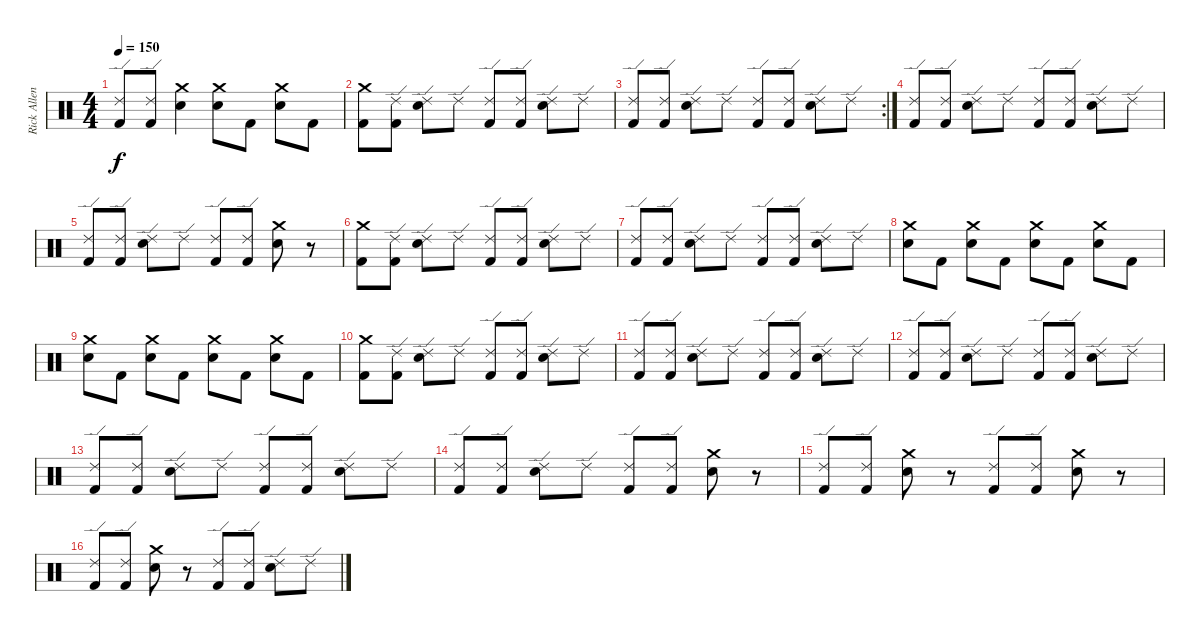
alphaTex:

\track ("Rick Allen" "Rick Allen") {instrument percussion}
\staff {score}
\articulation defaults
\ts (4 4)
\tempo 150
\clef neutral
\ks c
("Ride (edge) 2" "Kick (hit) 2").8{dy f} ("Ride (edge) 2" "Kick (hit) 2").8 ("Crash medium (hit)" "Snare (hit) 2").4 ("Crash medium (hit)" "Snare (hit) 2").8 "Kick (hit) 2".8 ("Crash medium (hit)" "Snare (hit) 2").8 "Kick (hit) 2".8 |
("Crash medium (hit)" "Kick (hit) 2").8 ("Ride (edge) 2" "Kick (hit) 2").8 ("Ride (edge) 2" "Snare (hit) 2").8 "Ride (edge) 2".8 ("Ride (edge) 2" "Kick (hit) 2").8 ("Ride (edge) 2" "Kick (hit) 2").8 ("Ride (edge) 2" "Snare (hit) 2").8 "Ride (edge) 2".8 |
\rc 2
("Ride (edge) 2" "Kick (hit) 2").8 ("Ride (edge) 2" "Kick (hit) 2").8 ("Ride (edge) 2" "Snare (hit) 2").8 "Ride (edge) 2".8 ("Ride (edge) 2" "Kick (hit) 2").8 ("Ride (edge) 2" "Kick (hit) 2").8 ("Ride (edge) 2" "Snare (hit) 2").8 "Ride (edge) 2".8 |
("Ride (edge) 2" "Kick (hit) 2").8 ("Ride (edge) 2" "Kick (hit) 2").8 ("Ride (edge) 2" "Snare (hit) 2").8 "Ride (edge) 2".8 ("Ride (edge) 2" "Kick (hit) 2").8 ("Ride (edge) 2" "Kick (hit) 2").8 ("Ride (edge) 2" "Snare (hit) 2").8 "Ride (edge) 2".8 |
("Ride (edge) 2" "Kick (hit) 2").8 ("Ride (edge) 2" "Kick (hit) 2").8 ("Ride (edge) 2" "Snare (hit) 2").8 "Ride (edge) 2".8 ("Ride (edge) 2" "Kick (hit) 2").8 ("Ride (edge) 2" "Kick (hit) 2").8 ("Crash medium (hit)" "Snare (hit) 2").8 r.8 |
("Crash medium (hit)" "Kick (hit) 2").8 ("Ride (edge) 2" "Kick (hit) 2").8 ("Ride (edge) 2" "Snare (hit) 2").8 "Ride (edge) 2".8 ("Ride (edge) 2" "Kick (hit) 2").8 ("Ride (edge) 2" "Kick (hit) 2").8 ("Ride (edge) 2" "Snare (hit) 2").8 "Ride (edge) 2".8 |
("Ride (edge) 2" "Kick (hit) 2").8 ("Ride (edge) 2" "Kick (hit) 2").8 ("Ride (edge) 2" "Snare (hit) 2").8 "Ride (edge) 2".8 ("Ride (edge) 2" "Kick (hit) 2").8 ("Ride (edge) 2" "Kick (hit) 2").8 ("Ride (edge) 2" "Snare (hit) 2").8 "Ride (edge) 2".8 |
("Crash medium (hit)" "Snare (hit) 2").8 "Kick (hit) 2".8 ("Crash medium (hit)" "Snare (hit) 2").8 "Kick (hit) 2".8 ("Crash medium (hit)" "Snare (hit) 2").8 "Kick (hit) 2".8 ("Crash medium (hit)" "Snare (hit) 2").8 "Kick (hit) 2".8 |
("Crash medium (hit)" "Snare (hit) 2").8 "Kick (hit) 2".8 ("Crash medium (hit)" "Snare (hit) 2").8 "Kick (hit) 2".8 ("Crash medium (hit)" "Snare (hit) 2").8 "Kick (hit) 2".8 ("Crash medium (hit)" "Snare (hit) 2").8 "Kick (hit) 2".8 |
("Crash medium (hit)" "Kick (hit) 2").8 ("Ride (edge) 2" "Kick (hit) 2").8 ("Ride (edge) 2" "Snare (hit) 2").8 "Ride (edge) 2".8 ("Ride (edge) 2" "Kick (hit) 2").8 ("Ride (edge) 2" "Kick (hit) 2").8 ("Ride (edge) 2" "Snare (hit) 2").8 "Ride (edge) 2".8 |
("Ride (edge) 2" "Kick (hit) 2").8 ("Ride (edge) 2" "Kick (hit) 2").8 ("Ride (edge) 2" "Snare (hit) 2").8 "Ride (edge) 2".8 ("Ride (edge) 2" "Kick (hit) 2").8 ("Ride (edge) 2" "Kick (hit) 2").8 ("Ride (edge) 2" "Snare (hit) 2").8 "Ride (edge) 2".8 |
("Ride (edge) 2" "Kick (hit) 2").8 ("Ride (edge) 2" "Kick (hit) 2").8 ("Ride (edge) 2" "Snare (hit) 2").8 "Ride (edge) 2".8 ("Ride (edge) 2" "Kick (hit) 2").8 ("Ride (edge) 2" "Kick (hit) 2").8 ("Ride (edge) 2" "Snare (hit) 2").8 "Ride (edge) 2".8 |
("Ride (edge) 2" "Kick (hit) 2").8 ("Ride (edge) 2" "Kick (hit) 2").8 ("Ride (edge) 2" "Snare (hit) 2").8 "Ride (edge) 2".8 ("Ride (edge) 2" "Kick (hit) 2").8 ("Ride (edge) 2" "Kick (hit) 2").8 ("Ride (edge) 2" "Snare (hit) 2").8 "Ride (edge) 2".8 |
("Ride (edge) 2" "Kick (hit) 2").8 ("Ride (edge) 2" "Kick (hit) 2").8 ("Ride (edge) 2" "Snare (hit) 2").8 "Ride (edge) 2".8 ("Ride (edge) 2" "Kick (hit) 2").8 ("Ride (edge) 2" "Kick (hit) 2").8 ("Crash medium (hit)" "Snare (hit) 2").8 r.8 |
("Ride (edge) 2" "Kick (hit) 2").8 ("Ride (edge) 2" "Kick (hit) 2").8 ("Crash medium (hit)" "Snare (hit) 2").8 r.8 ("Ride (edge) 2" "Kick (hit) 2").8 ("Ride (edge) 2" "Kick (hit) 2").8 ("Crash medium (hit)" "Snare (hit) 2").8 r.8 |
("Ride (edge) 2" "Kick (hit) 2").8 ("Ride (edge) 2" "Kick (hit) 2").8 ("Crash medium (hit)" "Snare (hit) 2").8 r.8 ("Ride (edge) 2" "Kick (hit) 2").8 ("Ride (edge) 2" "Kick (hit) 2").8 ("Ride (edge) 2" "Snare (hit) 2").8 "Ride (edge) 2".8
